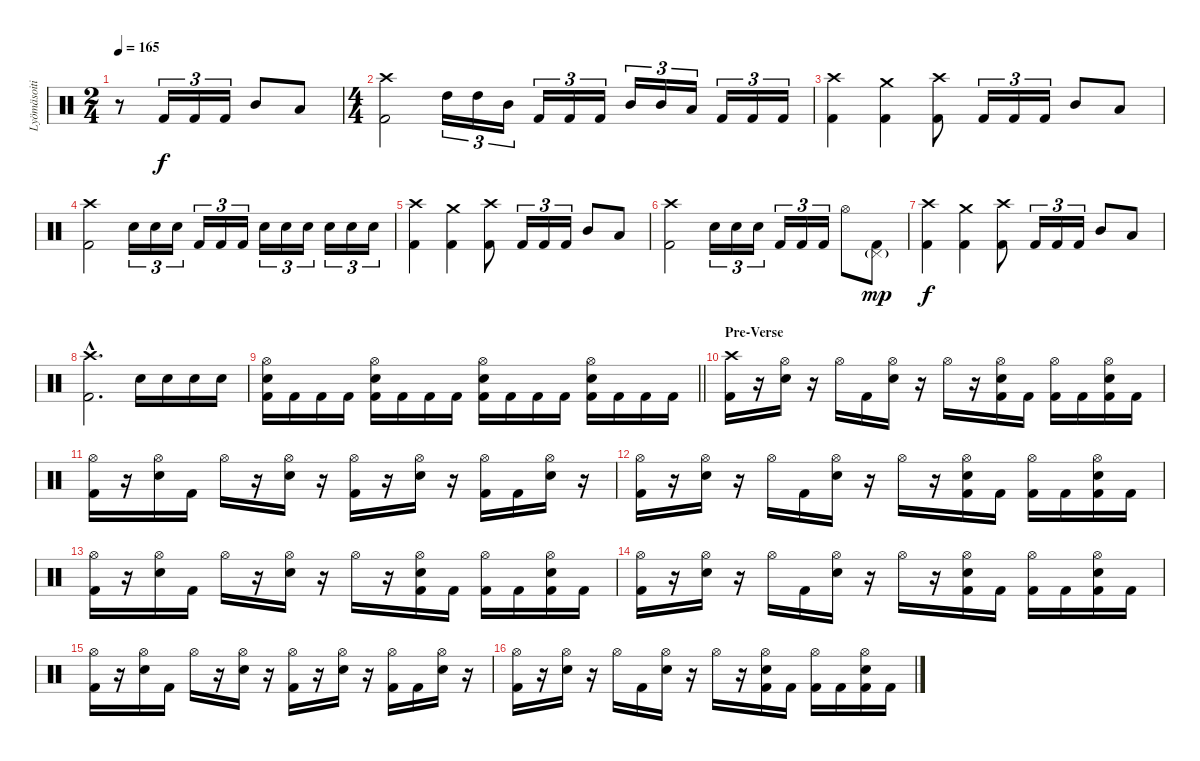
\track ("Lyömäsoitin" "Lyömäsoiti") {instrument percussion}
\staff {score}
\articulation defaults
\ts (2 4)
\tempo 165
\clef neutral
\ks c
r.8{dy f} "Kick (hit) 2".16{tu (3 2)} "Kick (hit) 2".16{tu (3 2)} "Kick (hit) 2".16{tu (3 2)} "Mid Tom (hit)".8 "Low Tom (hit)".8 |
\ts (4 4)
("Crash high (hit)" "Kick (hit) 2").2 "High Tom (hit)".16{tu (3 2)} "High Tom (hit)".16{tu (3 2)} "Mid Tom (hit)".16{tu (3 2)} "Kick (hit) 2".16{tu (3 2)} "Kick (hit) 2".16{tu (3 2)} "Kick (hit) 2".16{tu (3 2)} "Mid Tom (hit)".16{tu (3 2)} "Mid Tom (hit)".16{tu (3 2)} "Low Tom (hit)".16{tu (3 2)} "Kick (hit) 2".16{tu (3 2)} "Kick (hit) 2".16{tu (3 2)} "Kick (hit) 2".16{tu (3 2)} |
("Crash high (hit)" "Kick (hit) 2").4 ("Crash medium (hit)" "Kick (hit) 2").4 ("Crash high (hit)" "Kick (hit) 2").8 "Kick (hit) 2".16{tu (3 2)} "Kick (hit) 2".16{tu (3 2)} "Kick (hit) 2".16{tu (3 2)} "Mid Tom (hit)".8 "Low Tom (hit)".8 |
("Crash high (hit)" "Kick (hit) 2").2 "Electric Snare (hit)".16{tu (3 2)} "Electric Snare (hit)".16{tu (3 2)} "Electric Snare (hit)".16{tu (3 2)} "Kick (hit) 2".16{tu (3 2)} "Kick (hit) 2".16{tu (3 2)} "Kick (hit) 2".16{tu (3 2)} "Electric Snare (hit)".16{tu (3 2)} "Electric Snare (hit)".16{tu (3 2)} "Electric Snare (hit)".16{tu (3 2)} "Electric Snare (hit)".16{tu (3 2)} "Electric Snare (hit)".16{tu (3 2)} "Electric Snare (hit)".16{tu (3 2)} |
("Crash high (hit)" "Kick (hit) 2").4 ("Crash medium (hit)" "Kick (hit) 2").4 ("Crash high (hit)" "Kick (hit) 2").8 "Kick (hit) 2".16{tu (3 2)} "Kick (hit) 2".16{tu (3 2)} "Kick (hit) 2".16{tu (3 2)} "Mid Tom (hit)".8 "Low Tom (hit)".8 |
("Crash high (hit)" "Kick (hit) 2").2 "Electric Snare (hit)".16{tu (3 2)} "Electric Snare (hit)".16{tu (3 2)} "Electric Snare (hit)".16{tu (3 2)} "Kick (hit) 2".16{tu (3 2)} "Kick (hit) 2".16{tu (3 2)} "Kick (hit) 2".16{tu (3 2)} "Hi-Hat (open)".8 ("Pedal Hi-Hat (hit)"{g} "Kick (hit) 2").8{dy mp} |
("Crash high (hit)" "Kick (hit) 2").4{dy f} ("Crash medium (hit)" "Kick (hit) 2").4 ("Crash high (hit)" "Kick (hit) 2").8 "Kick (hit) 2".16{tu (3 2)} "Kick (hit) 2".16{tu (3 2)} "Kick (hit) 2".16{tu (3 2)} "Mid Tom (hit)".8 "Low Tom (hit)".8 |
("Crash high (hit)"{hac} "Kick (hit) 2"{hac}).2{d} "Electric Snare (hit)".16 "Electric Snare (hit)".16 "Electric Snare (hit)".16 "Electric Snare (hit)".16 |
\barLineRight lightlight
("Hi-Hat (open)" "Electric Snare (hit)" "Kick (hit) 2").16 "Kick (hit) 2".16 "Kick (hit) 2".16 "Kick (hit) 2".16 ("Hi-Hat (open)" "Electric Snare (hit)" "Kick (hit) 2").16 "Kick (hit) 2".16 "Kick (hit) 2".16 "Kick (hit) 2".16 ("Hi-Hat (open)" "Electric Snare (hit)" "Kick (hit) 2").16 "Kick (hit) 2".16 "Kick (hit) 2".16 "Kick (hit) 2".16 ("Hi-Hat (open)" "Electric Snare (hit)" "Kick (hit) 2").16 "Kick (hit) 2".16 "Kick (hit) 2".16 "Kick (hit) 2".16 |
\section ("" "Pre-Verse")
("Crash high (hit)" "Kick (hit) 2").16 r.16 ("Hi-Hat (open)" "Electric Snare (hit)").16 r.16 "Hi-Hat (open)".16 "Kick (hit) 2".16 ("Hi-Hat (open)" "Electric Snare (hit)").16 r.16 "Hi-Hat (open)".16 r.16 ("Hi-Hat (open)" "Electric Snare (hit)" "Kick (hit) 2").16 "Kick (hit) 2".16 ("Hi-Hat (open)" "Kick (hit) 2").16 "Kick (hit) 2".16 ("Hi-Hat (open)" "Electric Snare (hit)" "Kick (hit) 2").16 "Kick (hit) 2".16 |
("Hi-Hat (open)" "Kick (hit) 2").16 r.16 ("Hi-Hat (open)" "Electric Snare (hit)").16 "Kick (hit) 2".16 "Hi-Hat (open)".16 r.16 ("Hi-Hat (open)" "Electric Snare (hit)").16 r.16 ("Hi-Hat (open)" "Kick (hit) 2").16 r.16 ("Hi-Hat (open)" "Electric Snare (hit)").16 r.16 ("Hi-Hat (open)" "Kick (hit) 2").16 "Kick (hit) 2".16 ("Hi-Hat (open)" "Electric Snare (hit)").16 r.16 |
("Hi-Hat (open)" "Kick (hit) 2").16 r.16 ("Hi-Hat (open)" "Electric Snare (hit)").16 r.16 "Hi-Hat (open)".16 "Kick (hit) 2".16 ("Hi-Hat (open)" "Electric Snare (hit)").16 r.16 "Hi-Hat (open)".16 r.16 ("Hi-Hat (open)" "Electric Snare (hit)" "Kick (hit) 2").16 "Kick (hit) 2".16 ("Hi-Hat (open)" "Kick (hit) 2").16 "Kick (hit) 2".16 ("Hi-Hat (open)" "Electric Snare (hit)" "Kick (hit) 2").16 "Kick (hit) 2".16 |
("Hi-Hat (open)" "Kick (hit) 2").16 r.16 ("Hi-Hat (open)" "Electric Snare (hit)").16 "Kick (hit) 2".16 "Hi-Hat (open)".16 r.16 ("Hi-Hat (open)" "Electric Snare (hit)").16 r.16 "Hi-Hat (open)".16 r.16 ("Hi-Hat (open)" "Electric Snare (hit)" "Kick (hit) 2").16 "Kick (hit) 2".16 ("Hi-Hat (open)" "Kick (hit) 2").16 "Kick (hit) 2".16 ("Hi-Hat (open)" "Electric Snare (hit)" "Kick (hit) 2").16 "Kick (hit) 2".16 |
("Hi-Hat (open)" "Kick (hit) 2").16 r.16 ("Hi-Hat (open)" "Electric Snare (hit)").16 r.16 "Hi-Hat (open)".16 "Kick (hit) 2".16 ("Hi-Hat (open)" "Electric Snare (hit)").16 r.16 "Hi-Hat (open)".16 r.16 ("Hi-Hat (open)" "Electric Snare (hit)" "Kick (hit) 2").16 "Kick (hit) 2".16 ("Hi-Hat (open)" "Kick (hit) 2").16 "Kick (hit) 2".16 ("Hi-Hat (open)" "Electric Snare (hit)" "Kick (hit) 2").16 "Kick (hit) 2".16 |
("Hi-Hat (open)" "Kick (hit) 2").16 r.16 ("Hi-Hat (open)" "Electric Snare (hit)").16 "Kick (hit) 2".16 "Hi-Hat (open)".16 r.16 ("Hi-Hat (open)" "Electric Snare (hit)").16 r.16 ("Hi-Hat (open)" "Kick (hit) 2").16 r.16 ("Hi-Hat (open)" "Electric Snare (hit)").16 r.16 ("Hi-Hat (open)" "Kick (hit) 2").16 "Kick (hit) 2".16 ("Hi-Hat (open)" "Electric Snare (hit)").16 r.16 |
("Hi-Hat (open)" "Kick (hit) 2").16 r.16 ("Hi-Hat (open)" "Electric Snare (hit)").16 r.16 "Hi-Hat (open)".16 "Kick (hit) 2".16 ("Hi-Hat (open)" "Electric Snare (hit)").16 r.16 "Hi-Hat (open)".16 r.16 ("Hi-Hat (open)" "Electric Snare (hit)" "Kick (hit) 2").16 "Kick (hit) 2".16 ("Hi-Hat (open)" "Kick (hit) 2").16 "Kick (hit) 2".16 ("Hi-Hat (open)" "Electric Snare (hit)" "Kick (hit) 2").16 "Kick (hit) 2".16
